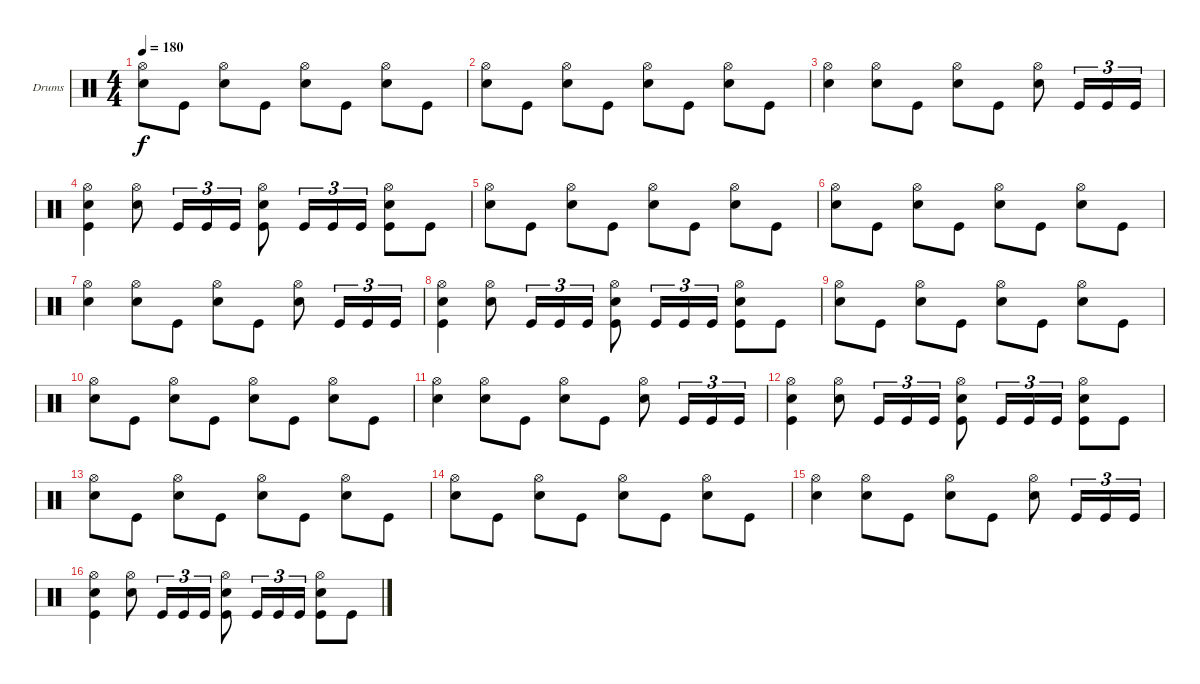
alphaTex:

\bracketExtendMode groupsimilarinstruments
\firstSystemTrackNameOrientation horizontal
\otherSystemsTrackNameOrientation horizontal
\track ("Drumkit" "Drums") {instrument percussion}
\staff {score}
\articulation defaults
\ts (4 4)
\tempo 180
\clef neutral
\ks c
("Hi-Hat (open)" "Snare (hit) 2").8{dy f} "Kick (hit)".8 ("Hi-Hat (open)" "Snare (hit) 2").8 "Kick (hit)".8 ("Hi-Hat (open)" "Snare (hit) 2").8 "Kick (hit)".8 ("Hi-Hat (open)" "Snare (hit) 2").8 "Kick (hit)".8 |
("Hi-Hat (open)" "Snare (hit) 2").8 "Kick (hit)".8 ("Hi-Hat (open)" "Snare (hit) 2").8 "Kick (hit)".8 ("Hi-Hat (open)" "Snare (hit) 2").8 "Kick (hit)".8 ("Hi-Hat (open)" "Snare (hit) 2").8 "Kick (hit)".8 |
("Hi-Hat (open)" "Snare (hit) 2").4 ("Hi-Hat (open)" "Snare (hit) 2").8 "Kick (hit)".8 ("Hi-Hat (open)" "Snare (hit) 2").8 "Kick (hit)".8 ("Hi-Hat (open)" "Snare (hit) 2").8 "Kick (hit)".16{tu (3 2)} "Kick (hit)".16{tu (3 2)} "Kick (hit)".16{tu (3 2)} |
("Hi-Hat (open)" "Snare (hit) 2" "Kick (hit)").4 ("Hi-Hat (open)" "Snare (hit) 2").8 "Kick (hit)".16{tu (3 2)} "Kick (hit)".16{tu (3 2)} "Kick (hit)".16{tu (3 2)} ("Hi-Hat (open)" "Snare (hit) 2" "Kick (hit)").8 "Kick (hit)".16{tu (3 2)} "Kick (hit)".16{tu (3 2)} "Kick (hit)".16{tu (3 2)} ("Hi-Hat (open)" "Snare (hit) 2" "Kick (hit)").8 "Kick (hit)".8 |
("Hi-Hat (open)" "Snare (hit) 2").8 "Kick (hit)".8 ("Hi-Hat (open)" "Snare (hit) 2").8 "Kick (hit)".8 ("Hi-Hat (open)" "Snare (hit) 2").8 "Kick (hit)".8 ("Hi-Hat (open)" "Snare (hit) 2").8 "Kick (hit)".8 |
("Hi-Hat (open)" "Snare (hit) 2").8 "Kick (hit)".8 ("Hi-Hat (open)" "Snare (hit) 2").8 "Kick (hit)".8 ("Hi-Hat (open)" "Snare (hit) 2").8 "Kick (hit)".8 ("Hi-Hat (open)" "Snare (hit) 2").8 "Kick (hit)".8 |
("Hi-Hat (open)" "Snare (hit) 2").4 ("Hi-Hat (open)" "Snare (hit) 2").8 "Kick (hit)".8 ("Hi-Hat (open)" "Snare (hit) 2").8 "Kick (hit)".8 ("Hi-Hat (open)" "Snare (hit) 2").8 "Kick (hit)".16{tu (3 2)} "Kick (hit)".16{tu (3 2)} "Kick (hit)".16{tu (3 2)} |
("Hi-Hat (open)" "Snare (hit) 2" "Kick (hit)").4 ("Hi-Hat (open)" "Snare (hit) 2").8 "Kick (hit)".16{tu (3 2)} "Kick (hit)".16{tu (3 2)} "Kick (hit)".16{tu (3 2)} ("Hi-Hat (open)" "Snare (hit) 2" "Kick (hit)").8 "Kick (hit)".16{tu (3 2)} "Kick (hit)".16{tu (3 2)} "Kick (hit)".16{tu (3 2)} ("Hi-Hat (open)" "Snare (hit) 2" "Kick (hit)").8 "Kick (hit)".8 |
("Hi-Hat (open)" "Snare (hit) 2").8 "Kick (hit)".8 ("Hi-Hat (open)" "Snare (hit) 2").8 "Kick (hit)".8 ("Hi-Hat (open)" "Snare (hit) 2").8 "Kick (hit)".8 ("Hi-Hat (open)" "Snare (hit) 2").8 "Kick (hit)".8 |
("Hi-Hat (open)" "Snare (hit) 2").8 "Kick (hit)".8 ("Hi-Hat (open)" "Snare (hit) 2").8 "Kick (hit)".8 ("Hi-Hat (open)" "Snare (hit) 2").8 "Kick (hit)".8 ("Hi-Hat (open)" "Snare (hit) 2").8 "Kick (hit)".8 |
("Hi-Hat (open)" "Snare (hit) 2").4 ("Hi-Hat (open)" "Snare (hit) 2").8 "Kick (hit)".8 ("Hi-Hat (open)" "Snare (hit) 2").8 "Kick (hit)".8 ("Hi-Hat (open)" "Snare (hit) 2").8 "Kick (hit)".16{tu (3 2)} "Kick (hit)".16{tu (3 2)} "Kick (hit)".16{tu (3 2)} |
("Hi-Hat (open)" "Snare (hit) 2" "Kick (hit)").4 ("Hi-Hat (open)" "Snare (hit) 2").8 "Kick (hit)".16{tu (3 2)} "Kick (hit)".16{tu (3 2)} "Kick (hit)".16{tu (3 2)} ("Hi-Hat (open)" "Snare (hit) 2" "Kick (hit)").8 "Kick (hit)".16{tu (3 2)} "Kick (hit)".16{tu (3 2)} "Kick (hit)".16{tu (3 2)} ("Hi-Hat (open)" "Snare (hit) 2" "Kick (hit)").8 "Kick (hit)".8 |
("Hi-Hat (open)" "Snare (hit) 2").8 "Kick (hit)".8 ("Hi-Hat (open)" "Snare (hit) 2").8 "Kick (hit)".8 ("Hi-Hat (open)" "Snare (hit) 2").8 "Kick (hit)".8 ("Hi-Hat (open)" "Snare (hit) 2").8 "Kick (hit)".8 |
("Hi-Hat (open)" "Snare (hit) 2").8 "Kick (hit)".8 ("Hi-Hat (open)" "Snare (hit) 2").8 "Kick (hit)".8 ("Hi-Hat (open)" "Snare (hit) 2").8 "Kick (hit)".8 ("Hi-Hat (open)" "Snare (hit) 2").8 "Kick (hit)".8 |
("Hi-Hat (open)" "Snare (hit) 2").4 ("Hi-Hat (open)" "Snare (hit) 2").8 "Kick (hit)".8 ("Hi-Hat (open)" "Snare (hit) 2").8 "Kick (hit)".8 ("Hi-Hat (open)" "Snare (hit) 2").8 "Kick (hit)".16{tu (3 2)} "Kick (hit)".16{tu (3 2)} "Kick (hit)".16{tu (3 2)} |
("Hi-Hat (open)" "Snare (hit) 2" "Kick (hit)").4 ("Hi-Hat (open)" "Snare (hit) 2").8 "Kick (hit)".16{tu (3 2)} "Kick (hit)".16{tu (3 2)} "Kick (hit)".16{tu (3 2)} ("Hi-Hat (open)" "Snare (hit) 2" "Kick (hit)").8 "Kick (hit)".16{tu (3 2)} "Kick (hit)".16{tu (3 2)} "Kick (hit)".16{tu (3 2)} ("Hi-Hat (open)" "Snare (hit) 2" "Kick (hit)").8 "Kick (hit)".8
